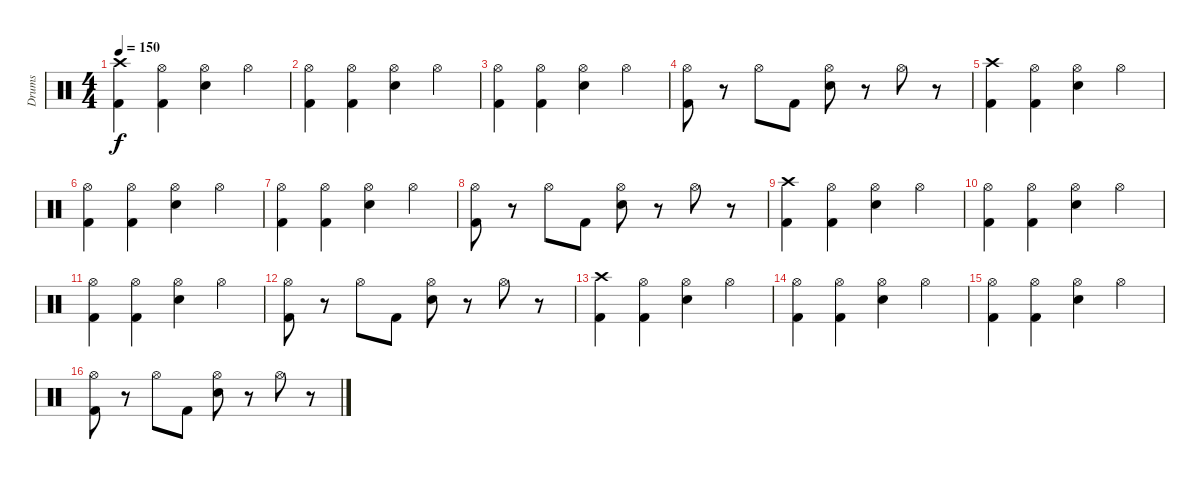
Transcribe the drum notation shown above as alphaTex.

\track ("Drums" "Drums") {instrument percussion}
\staff {score}
\articulation defaults
\ts (4 4)
\tempo 150
\clef neutral
\ks c
("Crash high (hit)" "Kick (hit) 2").4{dy f} ("Hi-Hat (open)" "Kick (hit) 2").4 ("Hi-Hat (open)" "Electric Snare (hit)").4 "Hi-Hat (open)".4 |
("Hi-Hat (open)" "Kick (hit) 2").4 ("Hi-Hat (open)" "Kick (hit) 2").4 ("Hi-Hat (open)" "Electric Snare (hit)").4 "Hi-Hat (open)".4 |
("Hi-Hat (open)" "Kick (hit) 2").4 ("Hi-Hat (open)" "Kick (hit) 2").4 ("Hi-Hat (open)" "Electric Snare (hit)").4 "Hi-Hat (open)".4 |
("Hi-Hat (open)" "Kick (hit) 2").8 r.8 "Hi-Hat (open)".8 "Kick (hit) 2".8 ("Hi-Hat (open)" "Electric Snare (hit)").8 r.8 "Hi-Hat (open)".8 r.8 |
("Crash high (hit)" "Kick (hit) 2").4 ("Hi-Hat (open)" "Kick (hit) 2").4 ("Hi-Hat (open)" "Electric Snare (hit)").4 "Hi-Hat (open)".4 |
("Hi-Hat (open)" "Kick (hit) 2").4 ("Hi-Hat (open)" "Kick (hit) 2").4 ("Hi-Hat (open)" "Electric Snare (hit)").4 "Hi-Hat (open)".4 |
("Hi-Hat (open)" "Kick (hit) 2").4 ("Hi-Hat (open)" "Kick (hit) 2").4 ("Hi-Hat (open)" "Electric Snare (hit)").4 "Hi-Hat (open)".4 |
("Hi-Hat (open)" "Kick (hit) 2").8 r.8 "Hi-Hat (open)".8 "Kick (hit) 2".8 ("Hi-Hat (open)" "Electric Snare (hit)").8 r.8 "Hi-Hat (open)".8 r.8 |
("Crash high (hit)" "Kick (hit) 2").4 ("Hi-Hat (open)" "Kick (hit) 2").4 ("Hi-Hat (open)" "Electric Snare (hit)").4 "Hi-Hat (open)".4 |
("Hi-Hat (open)" "Kick (hit) 2").4 ("Hi-Hat (open)" "Kick (hit) 2").4 ("Hi-Hat (open)" "Electric Snare (hit)").4 "Hi-Hat (open)".4 |
("Hi-Hat (open)" "Kick (hit) 2").4 ("Hi-Hat (open)" "Kick (hit) 2").4 ("Hi-Hat (open)" "Electric Snare (hit)").4 "Hi-Hat (open)".4 |
("Hi-Hat (open)" "Kick (hit) 2").8 r.8 "Hi-Hat (open)".8 "Kick (hit) 2".8 ("Hi-Hat (open)" "Electric Snare (hit)").8 r.8 "Hi-Hat (open)".8 r.8 |
("Crash high (hit)" "Kick (hit) 2").4 ("Hi-Hat (open)" "Kick (hit) 2").4 ("Hi-Hat (open)" "Electric Snare (hit)").4 "Hi-Hat (open)".4 |
("Hi-Hat (open)" "Kick (hit) 2").4 ("Hi-Hat (open)" "Kick (hit) 2").4 ("Hi-Hat (open)" "Electric Snare (hit)").4 "Hi-Hat (open)".4 |
("Hi-Hat (open)" "Kick (hit) 2").4 ("Hi-Hat (open)" "Kick (hit) 2").4 ("Hi-Hat (open)" "Electric Snare (hit)").4 "Hi-Hat (open)".4 |
("Hi-Hat (open)" "Kick (hit) 2").8 r.8 "Hi-Hat (open)".8 "Kick (hit) 2".8 ("Hi-Hat (open)" "Electric Snare (hit)").8 r.8 "Hi-Hat (open)".8 r.8
